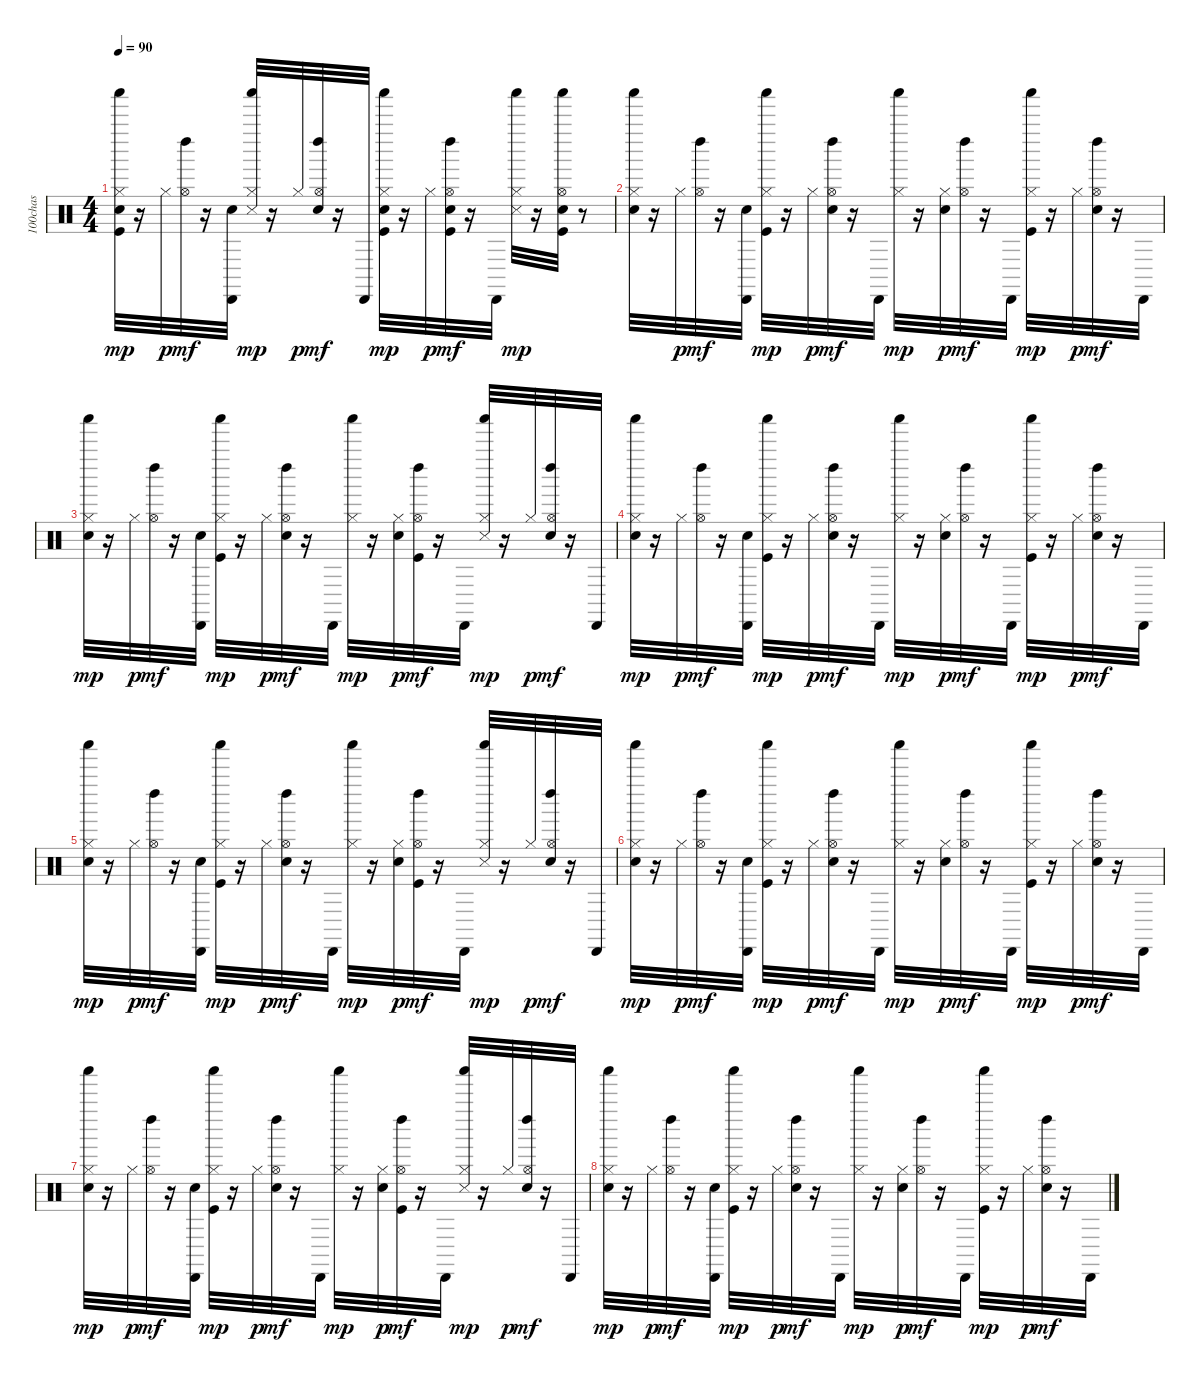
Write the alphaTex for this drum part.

\track ("100chas" "100chas") {instrument percussion}
\staff {score}
\articulation defaults
\ts (4 4)
\tempo 90
\clef neutral
\ks c
("Kick (hit)" "Hand Clap (hit)" "Hi-Hat (closed)" "Shaker (hit)").32{dy mp} r.16 "Hi-Hat (closed)".32{dy p} ("Hi-Hat (open)" "Left Maraca (hit)").32{dy mf} r.16 ("Hand Clap (hit)" "Cabasa (hit)").32 ("Snare (side stick) 3" "Hi-Hat (closed)" "Shaker (hit)").32{dy mp} r.16 "Hi-Hat (closed)".32{dy p} ("Hand Clap (hit)" "Hi-Hat (open)" "Left Maraca (hit)").32{dy mf} r.16 "Cabasa (hit)".32 ("Kick (hit)" "Hand Clap (hit)" "Hi-Hat (closed)" "Shaker (hit)").32{dy mp} r.16 "Hi-Hat (closed)".32{dy p} ("Kick (hit)" "Hand Clap (hit)" "Hi-Hat (open)" "Left Maraca (hit)").32{dy mf} r.16 "Cabasa (hit)".32 ("Snare (side stick) 3" "Hi-Hat (closed)" "Shaker (hit)").32{dy mp} r.16 ("Kick (hit)" "Hand Clap (hit)" "Hi-Hat (open)" "Shaker (hit)").32 r.8 |
("Hand Clap (hit)" "Hi-Hat (closed)" "Shaker (hit)").32 r.16 "Hi-Hat (closed)".32{dy p} ("Hi-Hat (open)" "Left Maraca (hit)").32{dy mf} r.16 ("Hand Clap (hit)" "Cabasa (hit)").32 ("Kick (hit)" "Hi-Hat (closed)" "Shaker (hit)").32{dy mp} r.16 "Hi-Hat (closed)".32{dy p} ("Hand Clap (hit)" "Hi-Hat (open)" "Left Maraca (hit)").32{dy mf} r.16 "Cabasa (hit)".32 ("Hi-Hat (closed)" "Shaker (hit)").32{dy mp} r.16 ("Hand Clap (hit)" "Hi-Hat (closed)").32{dy p} ("Hi-Hat (open)" "Left Maraca (hit)").32{dy mf} r.16 "Cabasa (hit)".32 ("Kick (hit)" "Hi-Hat (closed)" "Shaker (hit)").32{dy mp} r.16 "Hi-Hat (closed)".32{dy p} ("Hand Clap (hit)" "Hi-Hat (open)" "Left Maraca (hit)").32{dy mf} r.16 "Cabasa (hit)".32 |
("Hand Clap (hit)" "Hi-Hat (closed)" "Shaker (hit)").32{dy mp} r.16 "Hi-Hat (closed)".32{dy p} ("Hi-Hat (open)" "Left Maraca (hit)").32{dy mf} r.16 ("Hand Clap (hit)" "Cabasa (hit)").32 ("Kick (hit)" "Hi-Hat (closed)" "Shaker (hit)").32{dy mp} r.16 "Hi-Hat (closed)".32{dy p} ("Hand Clap (hit)" "Hi-Hat (open)" "Left Maraca (hit)").32{dy mf} r.16 "Cabasa (hit)".32 ("Hi-Hat (closed)" "Shaker (hit)").32{dy mp} r.16 ("Hand Clap (hit)" "Hi-Hat (closed)").32{dy p} ("Kick (hit)" "Hi-Hat (open)" "Left Maraca (hit)").32{dy mf} r.16 "Cabasa (hit)".32 ("Snare (side stick) 3" "Hi-Hat (closed)" "Shaker (hit)").32{dy mp} r.16 "Hi-Hat (closed)".32{dy p} ("Hand Clap (hit)" "Hi-Hat (open)" "Left Maraca (hit)").32{dy mf} r.16 "Cabasa (hit)".32 |
("Hand Clap (hit)" "Hi-Hat (closed)" "Shaker (hit)").32{dy mp} r.16 "Hi-Hat (closed)".32{dy p} ("Hi-Hat (open)" "Left Maraca (hit)").32{dy mf} r.16 ("Hand Clap (hit)" "Cabasa (hit)").32 ("Kick (hit)" "Hi-Hat (closed)" "Shaker (hit)").32{dy mp} r.16 "Hi-Hat (closed)".32{dy p} ("Hand Clap (hit)" "Hi-Hat (open)" "Left Maraca (hit)").32{dy mf} r.16 "Cabasa (hit)".32 ("Hi-Hat (closed)" "Shaker (hit)").32{dy mp} r.16 ("Hand Clap (hit)" "Hi-Hat (closed)").32{dy p} ("Hi-Hat (open)" "Left Maraca (hit)").32{dy mf} r.16 "Cabasa (hit)".32 ("Kick (hit)" "Hi-Hat (closed)" "Shaker (hit)").32{dy mp} r.16 "Hi-Hat (closed)".32{dy p} ("Hand Clap (hit)" "Hi-Hat (open)" "Left Maraca (hit)").32{dy mf} r.16 "Cabasa (hit)".32 |
("Hand Clap (hit)" "Hi-Hat (closed)" "Shaker (hit)").32{dy mp} r.16 "Hi-Hat (closed)".32{dy p} ("Hi-Hat (open)" "Left Maraca (hit)").32{dy mf} r.16 ("Hand Clap (hit)" "Cabasa (hit)").32 ("Kick (hit)" "Hi-Hat (closed)" "Shaker (hit)").32{dy mp} r.16 "Hi-Hat (closed)".32{dy p} ("Hand Clap (hit)" "Hi-Hat (open)" "Left Maraca (hit)").32{dy mf} r.16 "Cabasa (hit)".32 ("Hi-Hat (closed)" "Shaker (hit)").32{dy mp} r.16 ("Hand Clap (hit)" "Hi-Hat (closed)").32{dy p} ("Kick (hit)" "Hi-Hat (open)" "Left Maraca (hit)").32{dy mf} r.16 "Cabasa (hit)".32 ("Snare (side stick) 3" "Hi-Hat (closed)" "Shaker (hit)").32{dy mp} r.16 "Hi-Hat (closed)".32{dy p} ("Hand Clap (hit)" "Hi-Hat (open)" "Left Maraca (hit)").32{dy mf} r.16 "Cabasa (hit)".32 |
("Hand Clap (hit)" "Hi-Hat (closed)" "Shaker (hit)").32{dy mp} r.16 "Hi-Hat (closed)".32{dy p} ("Hi-Hat (open)" "Left Maraca (hit)").32{dy mf} r.16 ("Hand Clap (hit)" "Cabasa (hit)").32 ("Kick (hit)" "Hi-Hat (closed)" "Shaker (hit)").32{dy mp} r.16 "Hi-Hat (closed)".32{dy p} ("Hand Clap (hit)" "Hi-Hat (open)" "Left Maraca (hit)").32{dy mf} r.16 "Cabasa (hit)".32 ("Hi-Hat (closed)" "Shaker (hit)").32{dy mp} r.16 ("Hand Clap (hit)" "Hi-Hat (closed)").32{dy p} ("Hi-Hat (open)" "Left Maraca (hit)").32{dy mf} r.16 "Cabasa (hit)".32 ("Kick (hit)" "Hi-Hat (closed)" "Shaker (hit)").32{dy mp} r.16 "Hi-Hat (closed)".32{dy p} ("Hand Clap (hit)" "Hi-Hat (open)" "Left Maraca (hit)").32{dy mf} r.16 "Cabasa (hit)".32 |
("Hand Clap (hit)" "Hi-Hat (closed)" "Shaker (hit)").32{dy mp} r.16 "Hi-Hat (closed)".32{dy p} ("Hi-Hat (open)" "Left Maraca (hit)").32{dy mf} r.16 ("Hand Clap (hit)" "Cabasa (hit)").32 ("Kick (hit)" "Hi-Hat (closed)" "Shaker (hit)").32{dy mp} r.16 "Hi-Hat (closed)".32{dy p} ("Hand Clap (hit)" "Hi-Hat (open)" "Left Maraca (hit)").32{dy mf} r.16 "Cabasa (hit)".32 ("Hi-Hat (closed)" "Shaker (hit)").32{dy mp} r.16 ("Hand Clap (hit)" "Hi-Hat (closed)").32{dy p} ("Kick (hit)" "Hi-Hat (open)" "Left Maraca (hit)").32{dy mf} r.16 "Cabasa (hit)".32 ("Snare (side stick) 3" "Hi-Hat (closed)" "Shaker (hit)").32{dy mp} r.16 "Hi-Hat (closed)".32{dy p} ("Hand Clap (hit)" "Hi-Hat (open)" "Left Maraca (hit)").32{dy mf} r.16 "Cabasa (hit)".32 |
("Hand Clap (hit)" "Hi-Hat (closed)" "Shaker (hit)").32{dy mp} r.16 "Hi-Hat (closed)".32{dy p} ("Hi-Hat (open)" "Left Maraca (hit)").32{dy mf} r.16 ("Hand Clap (hit)" "Cabasa (hit)").32 ("Kick (hit)" "Hi-Hat (closed)" "Shaker (hit)").32{dy mp} r.16 "Hi-Hat (closed)".32{dy p} ("Hand Clap (hit)" "Hi-Hat (open)" "Left Maraca (hit)").32{dy mf} r.16 "Cabasa (hit)".32 ("Hi-Hat (closed)" "Shaker (hit)").32{dy mp} r.16 ("Hand Clap (hit)" "Hi-Hat (closed)").32{dy p} ("Hi-Hat (open)" "Left Maraca (hit)").32{dy mf} r.16 "Cabasa (hit)".32 ("Kick (hit)" "Hi-Hat (closed)" "Shaker (hit)").32{dy mp} r.16 "Hi-Hat (closed)".32{dy p} ("Hand Clap (hit)" "Hi-Hat (open)" "Left Maraca (hit)").32{dy mf} r.16 "Cabasa (hit)".32
